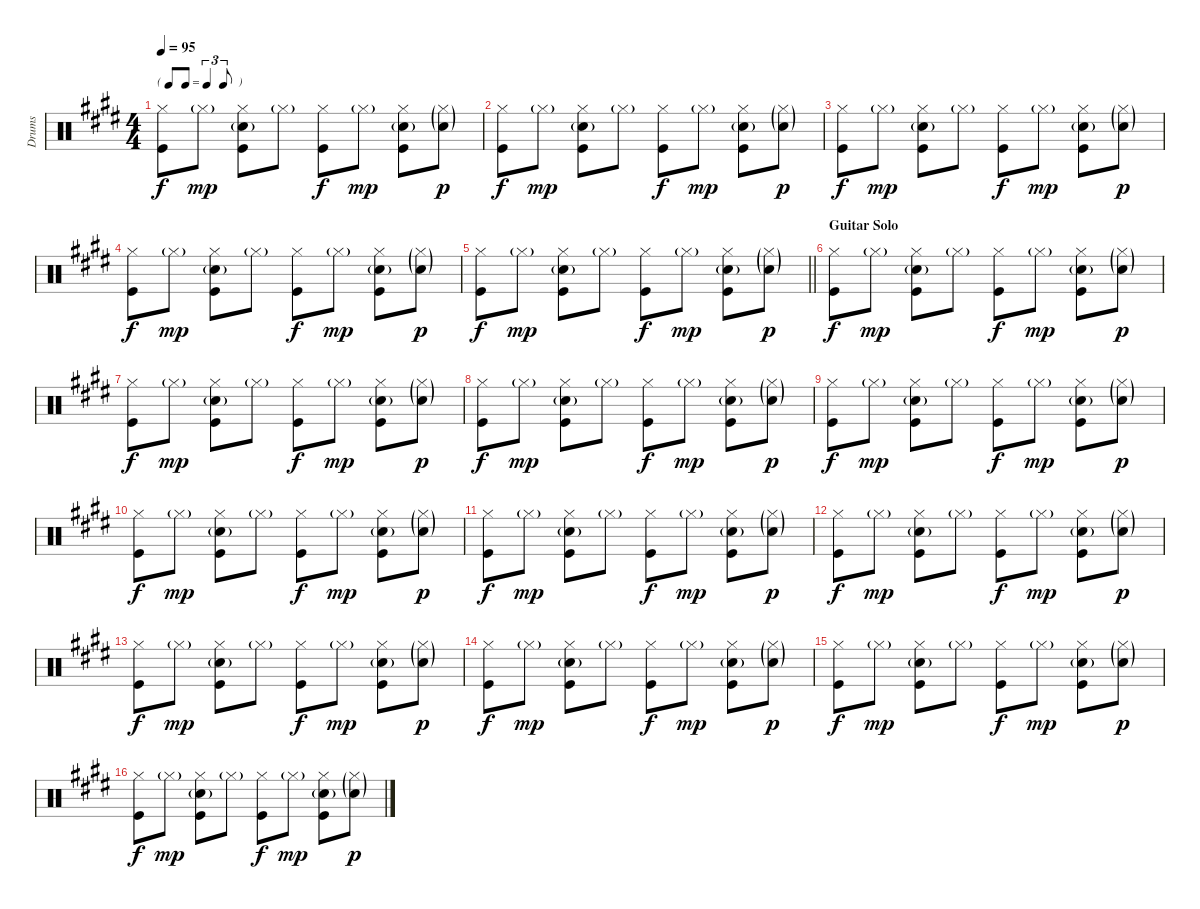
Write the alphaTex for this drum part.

\track ("Drums" "Drums") {instrument percussion}
\staff {score}
\articulation defaults
\ts (4 4)
\tf triplet8th
\tempo 95
\clef neutral
\ks e
("Hi-Hat (closed)" "Kick (hit)").8{dy f} "Hi-Hat (closed)"{g}.8{dy mp} ("Hi-Hat (closed)" "Snare (hit) 2"{g} "Kick (hit)").8 "Hi-Hat (closed)"{g}.8 ("Hi-Hat (closed)" "Kick (hit)").8{dy f} "Hi-Hat (closed)"{g}.8{dy mp} ("Hi-Hat (closed)" "Snare (hit) 2"{g} "Kick (hit)").8 ("Hi-Hat (closed)"{g} "Snare (hit) 2"{g}).8{dy p} |
("Hi-Hat (closed)" "Kick (hit)").8{dy f} "Hi-Hat (closed)"{g}.8{dy mp} ("Hi-Hat (closed)" "Snare (hit) 2"{g} "Kick (hit)").8 "Hi-Hat (closed)"{g}.8 ("Hi-Hat (closed)" "Kick (hit)").8{dy f} "Hi-Hat (closed)"{g}.8{dy mp} ("Hi-Hat (closed)" "Snare (hit) 2"{g} "Kick (hit)").8 ("Hi-Hat (closed)"{g} "Snare (hit) 2"{g}).8{dy p} |
("Hi-Hat (closed)" "Kick (hit)").8{dy f} "Hi-Hat (closed)"{g}.8{dy mp} ("Hi-Hat (closed)" "Snare (hit) 2"{g} "Kick (hit)").8 "Hi-Hat (closed)"{g}.8 ("Hi-Hat (closed)" "Kick (hit)").8{dy f} "Hi-Hat (closed)"{g}.8{dy mp} ("Hi-Hat (closed)" "Snare (hit) 2"{g} "Kick (hit)").8 ("Hi-Hat (closed)"{g} "Snare (hit) 2"{g}).8{dy p} |
("Hi-Hat (closed)" "Kick (hit)").8{dy f} "Hi-Hat (closed)"{g}.8{dy mp} ("Hi-Hat (closed)" "Snare (hit) 2"{g} "Kick (hit)").8 "Hi-Hat (closed)"{g}.8 ("Hi-Hat (closed)" "Kick (hit)").8{dy f} "Hi-Hat (closed)"{g}.8{dy mp} ("Hi-Hat (closed)" "Snare (hit) 2"{g} "Kick (hit)").8 ("Hi-Hat (closed)"{g} "Snare (hit) 2"{g}).8{dy p} |
\barLineRight lightlight
("Hi-Hat (closed)" "Kick (hit)").8{dy f} "Hi-Hat (closed)"{g}.8{dy mp} ("Hi-Hat (closed)" "Snare (hit) 2"{g} "Kick (hit)").8 "Hi-Hat (closed)"{g}.8 ("Hi-Hat (closed)" "Kick (hit)").8{dy f} "Hi-Hat (closed)"{g}.8{dy mp} ("Hi-Hat (closed)" "Snare (hit) 2"{g} "Kick (hit)").8 ("Hi-Hat (closed)"{g} "Snare (hit) 2"{g}).8{dy p} |
\section ("" "Guitar Solo")
("Hi-Hat (closed)" "Kick (hit)").8{dy f} "Hi-Hat (closed)"{g}.8{dy mp} ("Hi-Hat (closed)" "Snare (hit) 2"{g} "Kick (hit)").8 "Hi-Hat (closed)"{g}.8 ("Hi-Hat (closed)" "Kick (hit)").8{dy f} "Hi-Hat (closed)"{g}.8{dy mp} ("Hi-Hat (closed)" "Snare (hit) 2"{g} "Kick (hit)").8 ("Hi-Hat (closed)"{g} "Snare (hit) 2"{g}).8{dy p} |
("Hi-Hat (closed)" "Kick (hit)").8{dy f} "Hi-Hat (closed)"{g}.8{dy mp} ("Hi-Hat (closed)" "Snare (hit) 2"{g} "Kick (hit)").8 "Hi-Hat (closed)"{g}.8 ("Hi-Hat (closed)" "Kick (hit)").8{dy f} "Hi-Hat (closed)"{g}.8{dy mp} ("Hi-Hat (closed)" "Snare (hit) 2"{g} "Kick (hit)").8 ("Hi-Hat (closed)"{g} "Snare (hit) 2"{g}).8{dy p} |
("Hi-Hat (closed)" "Kick (hit)").8{dy f} "Hi-Hat (closed)"{g}.8{dy mp} ("Hi-Hat (closed)" "Snare (hit) 2"{g} "Kick (hit)").8 "Hi-Hat (closed)"{g}.8 ("Hi-Hat (closed)" "Kick (hit)").8{dy f} "Hi-Hat (closed)"{g}.8{dy mp} ("Hi-Hat (closed)" "Snare (hit) 2"{g} "Kick (hit)").8 ("Hi-Hat (closed)"{g} "Snare (hit) 2"{g}).8{dy p} |
("Hi-Hat (closed)" "Kick (hit)").8{dy f} "Hi-Hat (closed)"{g}.8{dy mp} ("Hi-Hat (closed)" "Snare (hit) 2"{g} "Kick (hit)").8 "Hi-Hat (closed)"{g}.8 ("Hi-Hat (closed)" "Kick (hit)").8{dy f} "Hi-Hat (closed)"{g}.8{dy mp} ("Hi-Hat (closed)" "Snare (hit) 2"{g} "Kick (hit)").8 ("Hi-Hat (closed)"{g} "Snare (hit) 2"{g}).8{dy p} |
("Hi-Hat (closed)" "Kick (hit)").8{dy f} "Hi-Hat (closed)"{g}.8{dy mp} ("Hi-Hat (closed)" "Snare (hit) 2"{g} "Kick (hit)").8 "Hi-Hat (closed)"{g}.8 ("Hi-Hat (closed)" "Kick (hit)").8{dy f} "Hi-Hat (closed)"{g}.8{dy mp} ("Hi-Hat (closed)" "Snare (hit) 2"{g} "Kick (hit)").8 ("Hi-Hat (closed)"{g} "Snare (hit) 2"{g}).8{dy p} |
("Hi-Hat (closed)" "Kick (hit)").8{dy f} "Hi-Hat (closed)"{g}.8{dy mp} ("Hi-Hat (closed)" "Snare (hit) 2"{g} "Kick (hit)").8 "Hi-Hat (closed)"{g}.8 ("Hi-Hat (closed)" "Kick (hit)").8{dy f} "Hi-Hat (closed)"{g}.8{dy mp} ("Hi-Hat (closed)" "Snare (hit) 2"{g} "Kick (hit)").8 ("Hi-Hat (closed)"{g} "Snare (hit) 2"{g}).8{dy p} |
("Hi-Hat (closed)" "Kick (hit)").8{dy f} "Hi-Hat (closed)"{g}.8{dy mp} ("Hi-Hat (closed)" "Snare (hit) 2"{g} "Kick (hit)").8 "Hi-Hat (closed)"{g}.8 ("Hi-Hat (closed)" "Kick (hit)").8{dy f} "Hi-Hat (closed)"{g}.8{dy mp} ("Hi-Hat (closed)" "Snare (hit) 2"{g} "Kick (hit)").8 ("Hi-Hat (closed)"{g} "Snare (hit) 2"{g}).8{dy p} |
("Hi-Hat (closed)" "Kick (hit)").8{dy f} "Hi-Hat (closed)"{g}.8{dy mp} ("Hi-Hat (closed)" "Snare (hit) 2"{g} "Kick (hit)").8 "Hi-Hat (closed)"{g}.8 ("Hi-Hat (closed)" "Kick (hit)").8{dy f} "Hi-Hat (closed)"{g}.8{dy mp} ("Hi-Hat (closed)" "Snare (hit) 2"{g} "Kick (hit)").8 ("Hi-Hat (closed)"{g} "Snare (hit) 2"{g}).8{dy p} |
("Hi-Hat (closed)" "Kick (hit)").8{dy f} "Hi-Hat (closed)"{g}.8{dy mp} ("Hi-Hat (closed)" "Snare (hit) 2"{g} "Kick (hit)").8 "Hi-Hat (closed)"{g}.8 ("Hi-Hat (closed)" "Kick (hit)").8{dy f} "Hi-Hat (closed)"{g}.8{dy mp} ("Hi-Hat (closed)" "Snare (hit) 2"{g} "Kick (hit)").8 ("Hi-Hat (closed)"{g} "Snare (hit) 2"{g}).8{dy p} |
("Hi-Hat (closed)" "Kick (hit)").8{dy f} "Hi-Hat (closed)"{g}.8{dy mp} ("Hi-Hat (closed)" "Snare (hit) 2"{g} "Kick (hit)").8 "Hi-Hat (closed)"{g}.8 ("Hi-Hat (closed)" "Kick (hit)").8{dy f} "Hi-Hat (closed)"{g}.8{dy mp} ("Hi-Hat (closed)" "Snare (hit) 2"{g} "Kick (hit)").8 ("Hi-Hat (closed)"{g} "Snare (hit) 2"{g}).8{dy p} |
("Hi-Hat (closed)" "Kick (hit)").8{dy f} "Hi-Hat (closed)"{g}.8{dy mp} ("Hi-Hat (closed)" "Snare (hit) 2"{g} "Kick (hit)").8 "Hi-Hat (closed)"{g}.8 ("Hi-Hat (closed)" "Kick (hit)").8{dy f} "Hi-Hat (closed)"{g}.8{dy mp} ("Hi-Hat (closed)" "Snare (hit) 2"{g} "Kick (hit)").8 ("Hi-Hat (closed)"{g} "Snare (hit) 2"{g}).8{dy p}
